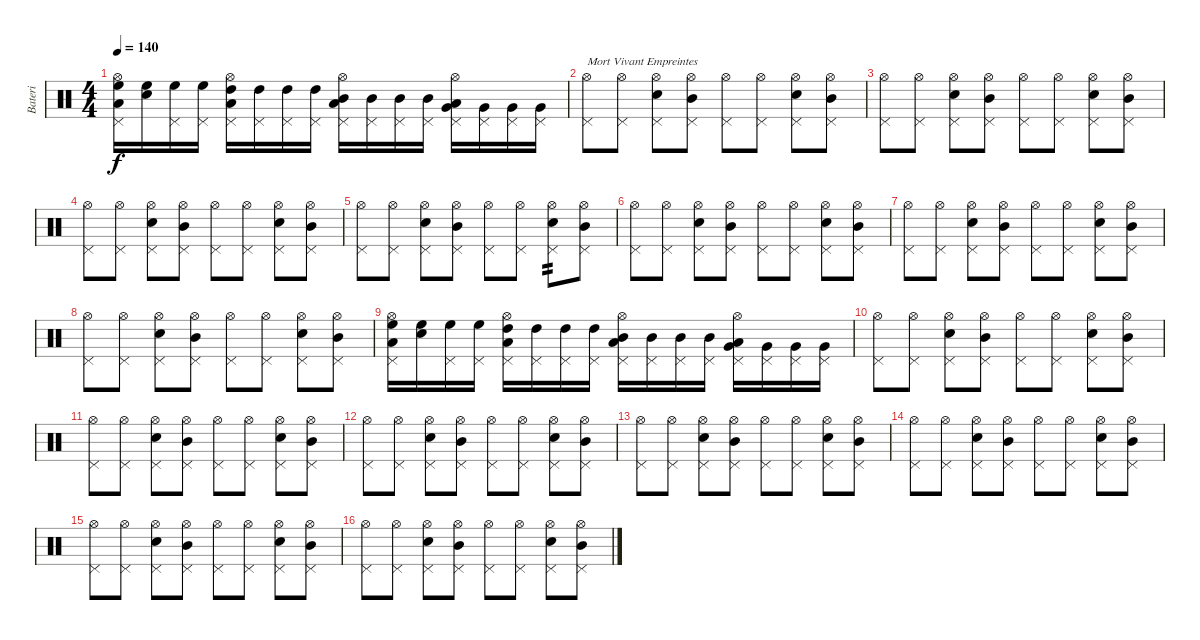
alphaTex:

\track ("Bateri" "Bateri") {instrument percussion}
\staff {score}
\articulation defaults
\ts (4 4)
\tempo 140
\clef neutral
\ks c
("Hi-Hat (open)" "High Floor Tom (hit)" "Low Tom (hit)" "Pedal Hi-Hat (hit)").16{dy f} ("High Floor Tom (hit)" "Snare (hit)").16 ("High Floor Tom (hit)" "Pedal Hi-Hat (hit)").16 ("High Floor Tom (hit)" "Pedal Hi-Hat (hit)").16 ("Hi-Hat (open)" "High Tom (hit)" "Low Tom (hit)" "Pedal Hi-Hat (hit)").16 ("High Tom (hit)" "Pedal Hi-Hat (hit)").16 ("High Tom (hit)" "Pedal Hi-Hat (hit)").16 ("High Tom (hit)" "Pedal Hi-Hat (hit)").16 ("Hi-Hat (open)" "Mid Tom (hit)" "Low Tom (hit)" "Pedal Hi-Hat (hit)").16 ("Mid Tom (hit)" "Pedal Hi-Hat (hit)").16 ("Mid Tom (hit)" "Pedal Hi-Hat (hit)").16 ("Mid Tom (hit)" "Pedal Hi-Hat (hit)").16 ("Hi-Hat (open)" "Very Low Tom (hit)" "Low Tom (hit)" "Pedal Hi-Hat (hit)").16 ("Very Low Tom (hit)" "Pedal Hi-Hat (hit)").16 ("Very Low Tom (hit)" "Pedal Hi-Hat (hit)").16 ("Very Low Tom (hit)" "Pedal Hi-Hat (hit)").16 |
("Hi-Hat (open)" "Pedal Hi-Hat (hit)").8{txt "Mort Vivant Empreintes"} ("Hi-Hat (open)" "Pedal Hi-Hat (hit)").8 ("Hi-Hat (open)" "Snare (hit) 2" "Pedal Hi-Hat (hit)").8 ("Hi-Hat (open)" "Mid Tom (hit)" "Pedal Hi-Hat (hit)").8 ("Hi-Hat (open)" "Pedal Hi-Hat (hit)").8 ("Hi-Hat (open)" "Pedal Hi-Hat (hit)").8 ("Hi-Hat (open)" "Snare (hit) 2" "Pedal Hi-Hat (hit)").8 ("Hi-Hat (open)" "Mid Tom (hit)" "Pedal Hi-Hat (hit)").8 |
("Hi-Hat (open)" "Pedal Hi-Hat (hit)").8 ("Hi-Hat (open)" "Pedal Hi-Hat (hit)").8 ("Hi-Hat (open)" "Snare (hit) 2" "Pedal Hi-Hat (hit)").8 ("Hi-Hat (open)" "Mid Tom (hit)" "Pedal Hi-Hat (hit)").8 ("Hi-Hat (open)" "Pedal Hi-Hat (hit)").8 ("Hi-Hat (open)" "Pedal Hi-Hat (hit)").8 ("Hi-Hat (open)" "Snare (hit) 2" "Pedal Hi-Hat (hit)").8 ("Hi-Hat (open)" "Mid Tom (hit)" "Pedal Hi-Hat (hit)").8 |
("Hi-Hat (open)" "Pedal Hi-Hat (hit)").8 ("Hi-Hat (open)" "Pedal Hi-Hat (hit)").8 ("Hi-Hat (open)" "Snare (hit) 2" "Pedal Hi-Hat (hit)").8 ("Hi-Hat (open)" "Mid Tom (hit)" "Pedal Hi-Hat (hit)").8 ("Hi-Hat (open)" "Pedal Hi-Hat (hit)").8 ("Hi-Hat (open)" "Pedal Hi-Hat (hit)").8 ("Hi-Hat (open)" "Snare (hit) 2" "Pedal Hi-Hat (hit)").8 ("Hi-Hat (open)" "Mid Tom (hit)" "Pedal Hi-Hat (hit)").8 |
("Hi-Hat (open)" "Pedal Hi-Hat (hit)").8 ("Hi-Hat (open)" "Pedal Hi-Hat (hit)").8 ("Hi-Hat (open)" "Snare (hit) 2" "Pedal Hi-Hat (hit)").8 ("Hi-Hat (open)" "Mid Tom (hit)" "Pedal Hi-Hat (hit)").8 ("Hi-Hat (open)" "Pedal Hi-Hat (hit)").8 ("Hi-Hat (open)" "Pedal Hi-Hat (hit)").8 ("Hi-Hat (open)" "Snare (hit) 2" "Pedal Hi-Hat (hit)").8{tp 2} ("Hi-Hat (open)" "Mid Tom (hit)" "Pedal Hi-Hat (hit)").8 |
("Hi-Hat (open)" "Pedal Hi-Hat (hit)").8 ("Hi-Hat (open)" "Pedal Hi-Hat (hit)").8 ("Hi-Hat (open)" "Snare (hit) 2" "Pedal Hi-Hat (hit)").8 ("Hi-Hat (open)" "Mid Tom (hit)" "Pedal Hi-Hat (hit)").8 ("Hi-Hat (open)" "Pedal Hi-Hat (hit)").8 ("Hi-Hat (open)" "Pedal Hi-Hat (hit)").8 ("Hi-Hat (open)" "Snare (hit) 2" "Pedal Hi-Hat (hit)").8 ("Hi-Hat (open)" "Mid Tom (hit)" "Pedal Hi-Hat (hit)").8 |
("Hi-Hat (open)" "Pedal Hi-Hat (hit)").8 ("Hi-Hat (open)" "Pedal Hi-Hat (hit)").8 ("Hi-Hat (open)" "Snare (hit) 2" "Pedal Hi-Hat (hit)").8 ("Hi-Hat (open)" "Mid Tom (hit)" "Pedal Hi-Hat (hit)").8 ("Hi-Hat (open)" "Pedal Hi-Hat (hit)").8 ("Hi-Hat (open)" "Pedal Hi-Hat (hit)").8 ("Hi-Hat (open)" "Snare (hit) 2" "Pedal Hi-Hat (hit)").8 ("Hi-Hat (open)" "Mid Tom (hit)" "Pedal Hi-Hat (hit)").8 |
("Hi-Hat (open)" "Pedal Hi-Hat (hit)").8 ("Hi-Hat (open)" "Pedal Hi-Hat (hit)").8 ("Hi-Hat (open)" "Snare (hit) 2" "Pedal Hi-Hat (hit)").8 ("Hi-Hat (open)" "Mid Tom (hit)" "Pedal Hi-Hat (hit)").8 ("Hi-Hat (open)" "Pedal Hi-Hat (hit)").8 ("Hi-Hat (open)" "Pedal Hi-Hat (hit)").8 ("Hi-Hat (open)" "Snare (hit) 2" "Pedal Hi-Hat (hit)").8 ("Hi-Hat (open)" "Mid Tom (hit)" "Pedal Hi-Hat (hit)").8 |
("Hi-Hat (open)" "High Floor Tom (hit)" "Low Tom (hit)" "Pedal Hi-Hat (hit)").16 ("High Floor Tom (hit)" "Snare (hit)").16 ("High Floor Tom (hit)" "Pedal Hi-Hat (hit)").16 ("High Floor Tom (hit)" "Pedal Hi-Hat (hit)").16 ("Hi-Hat (open)" "High Tom (hit)" "Low Tom (hit)" "Pedal Hi-Hat (hit)").16 ("High Tom (hit)" "Pedal Hi-Hat (hit)").16 ("High Tom (hit)" "Pedal Hi-Hat (hit)").16 ("High Tom (hit)" "Pedal Hi-Hat (hit)").16 ("Hi-Hat (open)" "Mid Tom (hit)" "Low Tom (hit)" "Pedal Hi-Hat (hit)").16 ("Mid Tom (hit)" "Pedal Hi-Hat (hit)").16 ("Mid Tom (hit)" "Pedal Hi-Hat (hit)").16 ("Mid Tom (hit)" "Pedal Hi-Hat (hit)").16 ("Hi-Hat (open)" "Very Low Tom (hit)" "Low Tom (hit)" "Pedal Hi-Hat (hit)").16 ("Very Low Tom (hit)" "Pedal Hi-Hat (hit)").16 ("Very Low Tom (hit)" "Pedal Hi-Hat (hit)").16 ("Very Low Tom (hit)" "Pedal Hi-Hat (hit)").16 |
("Hi-Hat (open)" "Pedal Hi-Hat (hit)").8 ("Hi-Hat (open)" "Pedal Hi-Hat (hit)").8 ("Hi-Hat (open)" "Snare (hit) 2" "Pedal Hi-Hat (hit)").8 ("Hi-Hat (open)" "Mid Tom (hit)" "Pedal Hi-Hat (hit)").8 ("Hi-Hat (open)" "Pedal Hi-Hat (hit)").8 ("Hi-Hat (open)" "Pedal Hi-Hat (hit)").8 ("Hi-Hat (open)" "Snare (hit) 2" "Pedal Hi-Hat (hit)").8 ("Hi-Hat (open)" "Mid Tom (hit)" "Pedal Hi-Hat (hit)").8 |
("Hi-Hat (open)" "Pedal Hi-Hat (hit)").8 ("Hi-Hat (open)" "Pedal Hi-Hat (hit)").8 ("Hi-Hat (open)" "Snare (hit) 2" "Pedal Hi-Hat (hit)").8 ("Hi-Hat (open)" "Mid Tom (hit)" "Pedal Hi-Hat (hit)").8 ("Hi-Hat (open)" "Pedal Hi-Hat (hit)").8 ("Hi-Hat (open)" "Pedal Hi-Hat (hit)").8 ("Hi-Hat (open)" "Snare (hit) 2" "Pedal Hi-Hat (hit)").8 ("Hi-Hat (open)" "Mid Tom (hit)" "Pedal Hi-Hat (hit)").8 |
("Hi-Hat (open)" "Pedal Hi-Hat (hit)").8 ("Hi-Hat (open)" "Pedal Hi-Hat (hit)").8 ("Hi-Hat (open)" "Snare (hit) 2" "Pedal Hi-Hat (hit)").8 ("Hi-Hat (open)" "Mid Tom (hit)" "Pedal Hi-Hat (hit)").8 ("Hi-Hat (open)" "Pedal Hi-Hat (hit)").8 ("Hi-Hat (open)" "Pedal Hi-Hat (hit)").8 ("Hi-Hat (open)" "Snare (hit) 2" "Pedal Hi-Hat (hit)").8 ("Hi-Hat (open)" "Mid Tom (hit)" "Pedal Hi-Hat (hit)").8 |
("Hi-Hat (open)" "Pedal Hi-Hat (hit)").8 ("Hi-Hat (open)" "Pedal Hi-Hat (hit)").8 ("Hi-Hat (open)" "Snare (hit) 2" "Pedal Hi-Hat (hit)").8 ("Hi-Hat (open)" "Mid Tom (hit)" "Pedal Hi-Hat (hit)").8 ("Hi-Hat (open)" "Pedal Hi-Hat (hit)").8 ("Hi-Hat (open)" "Pedal Hi-Hat (hit)").8 ("Hi-Hat (open)" "Snare (hit) 2" "Pedal Hi-Hat (hit)").8 ("Hi-Hat (open)" "Mid Tom (hit)" "Pedal Hi-Hat (hit)").8 |
("Hi-Hat (open)" "Pedal Hi-Hat (hit)").8 ("Hi-Hat (open)" "Pedal Hi-Hat (hit)").8 ("Hi-Hat (open)" "Snare (hit) 2" "Pedal Hi-Hat (hit)").8 ("Hi-Hat (open)" "Mid Tom (hit)" "Pedal Hi-Hat (hit)").8 ("Hi-Hat (open)" "Pedal Hi-Hat (hit)").8 ("Hi-Hat (open)" "Pedal Hi-Hat (hit)").8 ("Hi-Hat (open)" "Snare (hit) 2" "Pedal Hi-Hat (hit)").8 ("Hi-Hat (open)" "Mid Tom (hit)" "Pedal Hi-Hat (hit)").8 |
("Hi-Hat (open)" "Pedal Hi-Hat (hit)").8 ("Hi-Hat (open)" "Pedal Hi-Hat (hit)").8 ("Hi-Hat (open)" "Snare (hit) 2" "Pedal Hi-Hat (hit)").8 ("Hi-Hat (open)" "Mid Tom (hit)" "Pedal Hi-Hat (hit)").8 ("Hi-Hat (open)" "Pedal Hi-Hat (hit)").8 ("Hi-Hat (open)" "Pedal Hi-Hat (hit)").8 ("Hi-Hat (open)" "Snare (hit) 2" "Pedal Hi-Hat (hit)").8 ("Hi-Hat (open)" "Mid Tom (hit)" "Pedal Hi-Hat (hit)").8 |
("Hi-Hat (open)" "Pedal Hi-Hat (hit)").8 ("Hi-Hat (open)" "Pedal Hi-Hat (hit)").8 ("Hi-Hat (open)" "Snare (hit) 2" "Pedal Hi-Hat (hit)").8 ("Hi-Hat (open)" "Mid Tom (hit)" "Pedal Hi-Hat (hit)").8 ("Hi-Hat (open)" "Pedal Hi-Hat (hit)").8 ("Hi-Hat (open)" "Pedal Hi-Hat (hit)").8 ("Hi-Hat (open)" "Snare (hit) 2" "Pedal Hi-Hat (hit)").8 ("Hi-Hat (open)" "Mid Tom (hit)" "Pedal Hi-Hat (hit)").8
